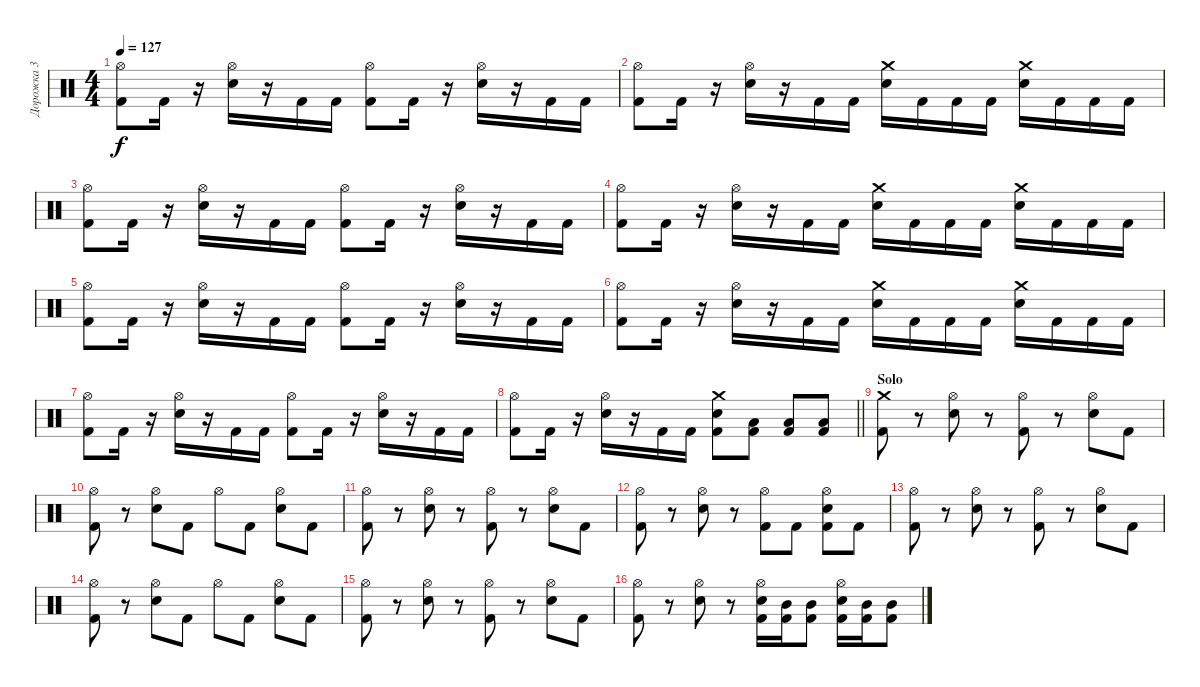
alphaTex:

\track ("Дорожка 3" "Дорожка 3") {instrument percussion}
\staff {score}
\articulation defaults
\ts (4 4)
\tempo 127
\clef neutral
\ks c
("Hi-Hat (open)" "Kick (hit) 2").8{dy f} "Kick (hit) 2".16 r.16 ("Hi-Hat (open)" "Electric Snare (hit)").16 r.16 "Kick (hit) 2".16 "Kick (hit) 2".16 ("Hi-Hat (open)" "Kick (hit) 2").8 "Kick (hit) 2".16 r.16 ("Hi-Hat (open)" "Electric Snare (hit)").16 r.16 "Kick (hit) 2".16 "Kick (hit) 2".16 |
("Hi-Hat (open)" "Kick (hit) 2").8 "Kick (hit) 2".16 r.16 ("Hi-Hat (open)" "Electric Snare (hit)").16 r.16 "Kick (hit) 2".16 "Kick (hit) 2".16 ("Crash medium (hit)" "Electric Snare (hit)").16 "Kick (hit) 2".16 "Kick (hit) 2".16 "Kick (hit) 2".16 ("Crash medium (hit)" "Electric Snare (hit)").16 "Kick (hit) 2".16 "Kick (hit) 2".16 "Kick (hit) 2".16 |
("Hi-Hat (open)" "Kick (hit) 2").8 "Kick (hit) 2".16 r.16 ("Hi-Hat (open)" "Electric Snare (hit)").16 r.16 "Kick (hit) 2".16 "Kick (hit) 2".16 ("Hi-Hat (open)" "Kick (hit) 2").8 "Kick (hit) 2".16 r.16 ("Hi-Hat (open)" "Electric Snare (hit)").16 r.16 "Kick (hit) 2".16 "Kick (hit) 2".16 |
("Hi-Hat (open)" "Kick (hit) 2").8 "Kick (hit) 2".16 r.16 ("Hi-Hat (open)" "Electric Snare (hit)").16 r.16 "Kick (hit) 2".16 "Kick (hit) 2".16 ("Crash medium (hit)" "Electric Snare (hit)").16 "Kick (hit) 2".16 "Kick (hit) 2".16 "Kick (hit) 2".16 ("Crash medium (hit)" "Electric Snare (hit)").16 "Kick (hit) 2".16 "Kick (hit) 2".16 "Kick (hit) 2".16 |
("Hi-Hat (open)" "Kick (hit) 2").8 "Kick (hit) 2".16 r.16 ("Hi-Hat (open)" "Electric Snare (hit)").16 r.16 "Kick (hit) 2".16 "Kick (hit) 2".16 ("Hi-Hat (open)" "Kick (hit) 2").8 "Kick (hit) 2".16 r.16 ("Hi-Hat (open)" "Electric Snare (hit)").16 r.16 "Kick (hit) 2".16 "Kick (hit) 2".16 |
("Hi-Hat (open)" "Kick (hit) 2").8 "Kick (hit) 2".16 r.16 ("Hi-Hat (open)" "Electric Snare (hit)").16 r.16 "Kick (hit) 2".16 "Kick (hit) 2".16 ("Crash medium (hit)" "Electric Snare (hit)").16 "Kick (hit) 2".16 "Kick (hit) 2".16 "Kick (hit) 2".16 ("Crash medium (hit)" "Electric Snare (hit)").16 "Kick (hit) 2".16 "Kick (hit) 2".16 "Kick (hit) 2".16 |
("Hi-Hat (open)" "Kick (hit) 2").8 "Kick (hit) 2".16 r.16 ("Hi-Hat (open)" "Electric Snare (hit)").16 r.16 "Kick (hit) 2".16 "Kick (hit) 2".16 ("Hi-Hat (open)" "Kick (hit) 2").8 "Kick (hit) 2".16 r.16 ("Hi-Hat (open)" "Electric Snare (hit)").16 r.16 "Kick (hit) 2".16 "Kick (hit) 2".16 |
\barLineRight lightlight
("Hi-Hat (open)" "Kick (hit) 2").8 "Kick (hit) 2".16 r.16 ("Hi-Hat (open)" "Electric Snare (hit)").16 r.16 "Kick (hit) 2".16 "Kick (hit) 2".16 ("Crash medium (hit)" "Electric Snare (hit)" "Kick (hit) 2").8 ("Low Tom (hit)" "Kick (hit) 2").8 ("Low Tom (hit)" "Kick (hit) 2").8 ("Low Tom (hit)" "Kick (hit) 2").8 |
\section ("" "Solo")
("Crash medium (hit)" "Kick (hit) 2").8 r.8 ("Hi-Hat (open)" "Electric Snare (hit)").8 r.8 ("Hi-Hat (open)" "Kick (hit) 2").8 r.8 ("Hi-Hat (open)" "Electric Snare (hit)").8 "Kick (hit) 2".8 |
("Hi-Hat (open)" "Kick (hit) 2").8 r.8 ("Hi-Hat (open)" "Electric Snare (hit)").8 "Kick (hit) 2".8 "Hi-Hat (open)".8 "Kick (hit) 2".8 ("Hi-Hat (open)" "Electric Snare (hit)").8 "Kick (hit) 2".8 |
("Hi-Hat (open)" "Kick (hit) 2").8 r.8 ("Hi-Hat (open)" "Electric Snare (hit)").8 r.8 ("Hi-Hat (open)" "Kick (hit) 2").8 r.8 ("Hi-Hat (open)" "Electric Snare (hit)").8 "Kick (hit) 2".8 |
("Hi-Hat (open)" "Kick (hit) 2").8 r.8 ("Hi-Hat (open)" "Electric Snare (hit)").8 r.8 ("Hi-Hat (open)" "Kick (hit) 2").8 "Kick (hit) 2".8 ("Hi-Hat (open)" "Electric Snare (hit)" "Kick (hit) 2").8 "Kick (hit) 2".8 |
("Hi-Hat (open)" "Kick (hit) 2").8 r.8 ("Hi-Hat (open)" "Electric Snare (hit)").8 r.8 ("Hi-Hat (open)" "Kick (hit) 2").8 r.8 ("Hi-Hat (open)" "Electric Snare (hit)").8 "Kick (hit) 2".8 |
("Hi-Hat (open)" "Kick (hit) 2").8 r.8 ("Hi-Hat (open)" "Electric Snare (hit)").8 "Kick (hit) 2".8 "Hi-Hat (open)".8 "Kick (hit) 2".8 ("Hi-Hat (open)" "Electric Snare (hit)").8 "Kick (hit) 2".8 |
("Hi-Hat (open)" "Kick (hit) 2").8 r.8 ("Hi-Hat (open)" "Electric Snare (hit)").8 r.8 ("Hi-Hat (open)" "Kick (hit) 2").8 r.8 ("Hi-Hat (open)" "Electric Snare (hit)").8 "Kick (hit) 2".8 |
("Hi-Hat (open)" "Kick (hit) 2").8 r.8 ("Hi-Hat (open)" "Electric Snare (hit)").8 r.8 ("Hi-Hat (open)" "Electric Snare (hit)" "Kick (hit) 2").16 ("Mid Tom (hit)" "Kick (hit) 2").16 ("Mid Tom (hit)" "Kick (hit) 2").8 ("Hi-Hat (open)" "Electric Snare (hit)" "Kick (hit) 2").16 ("Mid Tom (hit)" "Kick (hit) 2").16 ("Mid Tom (hit)" "Kick (hit) 2").8
